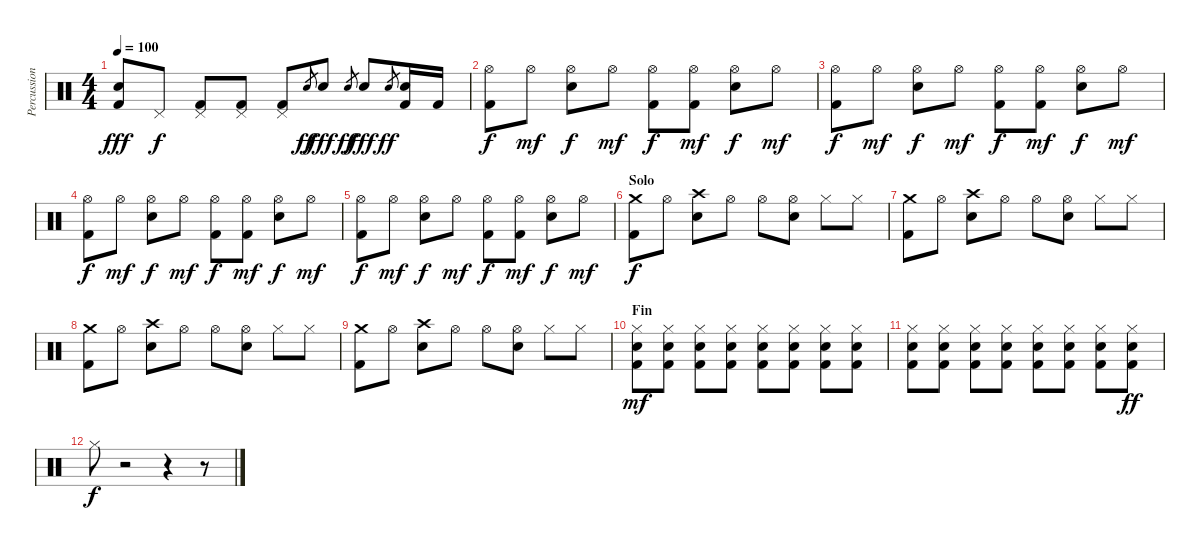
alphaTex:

\track ("Percussions" "Percussion") {instrument percussion}
\staff {score}
\articulation defaults
\ts (4 4)
\tempo 100
\clef neutral
\ks c
("Electric Snare (hit)" "Kick (hit) 2").8{dy fff} "Pedal Hi-Hat (hit)".8{dy f} ("Pedal Hi-Hat (hit)" "Kick (hit) 2").8 ("Pedal Hi-Hat (hit)" "Kick (hit) 2").8 ("Pedal Hi-Hat (hit)" "Kick (hit) 2").8 "Electric Snare (hit)".8{gr dy ff} "Electric Snare (hit)".8{dy fff} "Electric Snare (hit)".8{gr dy ff} "Electric Snare (hit)".8{dy fff} "Electric Snare (hit)".8{gr dy ff} ("Electric Snare (hit)" "Kick (hit) 2").16 "Kick (hit) 2".16 |
("Hi-Hat (open)" "Kick (hit) 2").8{dy f} "Hi-Hat (open)".8{dy mf} ("Hi-Hat (open)" "Electric Snare (hit)").8{dy f} "Hi-Hat (open)".8{dy mf} ("Hi-Hat (open)" "Kick (hit) 2").8{dy f} ("Hi-Hat (open)" "Kick (hit) 2").8{dy mf} ("Hi-Hat (open)" "Electric Snare (hit)").8{dy f} "Hi-Hat (open)".8{dy mf} |
("Hi-Hat (open)" "Kick (hit) 2").8{dy f} "Hi-Hat (open)".8{dy mf} ("Hi-Hat (open)" "Electric Snare (hit)").8{dy f} "Hi-Hat (open)".8{dy mf} ("Hi-Hat (open)" "Kick (hit) 2").8{dy f} ("Hi-Hat (open)" "Kick (hit) 2").8{dy mf} ("Hi-Hat (open)" "Electric Snare (hit)").8{dy f} "Hi-Hat (open)".8{dy mf} |
("Hi-Hat (open)" "Kick (hit) 2").8{dy f} "Hi-Hat (open)".8{dy mf} ("Hi-Hat (open)" "Electric Snare (hit)").8{dy f} "Hi-Hat (open)".8{dy mf} ("Hi-Hat (open)" "Kick (hit) 2").8{dy f} ("Hi-Hat (open)" "Kick (hit) 2").8{dy mf} ("Hi-Hat (open)" "Electric Snare (hit)").8{dy f} "Hi-Hat (open)".8{dy mf} |
("Hi-Hat (open)" "Kick (hit) 2").8{dy f} "Hi-Hat (open)".8{dy mf} ("Hi-Hat (open)" "Electric Snare (hit)").8{dy f} "Hi-Hat (open)".8{dy mf} ("Hi-Hat (open)" "Kick (hit) 2").8{dy f} ("Hi-Hat (open)" "Kick (hit) 2").8{dy mf} ("Hi-Hat (open)" "Electric Snare (hit)").8{dy f} "Hi-Hat (open)".8{dy mf} |
\section ("" "Solo")
("Crash medium (hit)" "Kick (hit) 2").8{dy f} "Hi-Hat (open)".8 ("Crash high (hit)" "Electric Snare (hit)").8 "Hi-Hat (open)".8 "Hi-Hat (open)".8 ("Hi-Hat (open)" "Electric Snare (hit)").8 "Hi-Hat (closed)".8 "Hi-Hat (closed)".8 |
("Crash medium (hit)" "Kick (hit) 2").8 "Hi-Hat (open)".8 ("Crash high (hit)" "Electric Snare (hit)").8 "Hi-Hat (open)".8 "Hi-Hat (open)".8 ("Hi-Hat (open)" "Electric Snare (hit)").8 "Hi-Hat (closed)".8 "Hi-Hat (closed)".8 |
("Crash medium (hit)" "Kick (hit) 2").8 "Hi-Hat (open)".8 ("Crash high (hit)" "Electric Snare (hit)").8 "Hi-Hat (open)".8 "Hi-Hat (open)".8 ("Hi-Hat (open)" "Electric Snare (hit)").8 "Hi-Hat (closed)".8 "Hi-Hat (closed)".8 |
("Crash medium (hit)" "Kick (hit) 2").8 "Hi-Hat (open)".8 ("Crash high (hit)" "Electric Snare (hit)").8 "Hi-Hat (open)".8 "Hi-Hat (open)".8 ("Hi-Hat (open)" "Electric Snare (hit)").8 "Hi-Hat (closed)".8 "Hi-Hat (closed)".8 |
\section ("" "Fin")
("Hi-Hat (closed)" "Electric Snare (hit)" "Kick (hit) 2").8{dy mf} ("Hi-Hat (closed)" "Electric Snare (hit)" "Kick (hit) 2").8 ("Hi-Hat (closed)" "Electric Snare (hit)" "Kick (hit) 2").8 ("Hi-Hat (closed)" "Electric Snare (hit)" "Kick (hit) 2").8 ("Hi-Hat (closed)" "Electric Snare (hit)" "Kick (hit) 2").8 ("Hi-Hat (closed)" "Electric Snare (hit)" "Kick (hit) 2").8 ("Hi-Hat (closed)" "Electric Snare (hit)" "Kick (hit) 2").8 ("Hi-Hat (closed)" "Electric Snare (hit)" "Kick (hit) 2").8 |
("Hi-Hat (closed)" "Electric Snare (hit)" "Kick (hit) 2").8 ("Hi-Hat (closed)" "Electric Snare (hit)" "Kick (hit) 2").8 ("Hi-Hat (closed)" "Electric Snare (hit)" "Kick (hit) 2").8 ("Hi-Hat (closed)" "Electric Snare (hit)" "Kick (hit) 2").8 ("Hi-Hat (closed)" "Electric Snare (hit)" "Kick (hit) 2").8 ("Hi-Hat (closed)" "Electric Snare (hit)" "Kick (hit) 2").8 ("Hi-Hat (closed)" "Electric Snare (hit)" "Kick (hit) 2").8 ("Hi-Hat (closed)" "Electric Snare (hit)" "Kick (hit) 2").8{dy ff} |
"Hi-Hat (closed)".8{dy f} r.2 r.4 r.8
